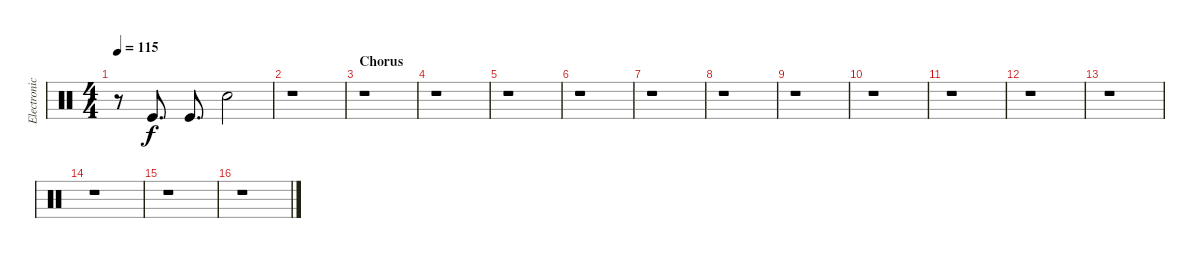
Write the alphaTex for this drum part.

\track ("Electronic Drums" "Electronic") {instrument percussion}
\staff {score}
\articulation defaults
\ts (4 4)
\tempo 115
\clef neutral
\ks c
r.8{dy f} "Kick (hit)".8{d} "Kick (hit)".8{d} "Hand Clap (hit)".2 |
r.1 |
\section ("" "Chorus")
r.1 |
r.1 |
r.1 |
r.1 |
r.1 |
r.1 |
r.1 |
r.1 |
r.1 |
r.1 |
r.1 |
r.1 |
r.1 |
r.1
